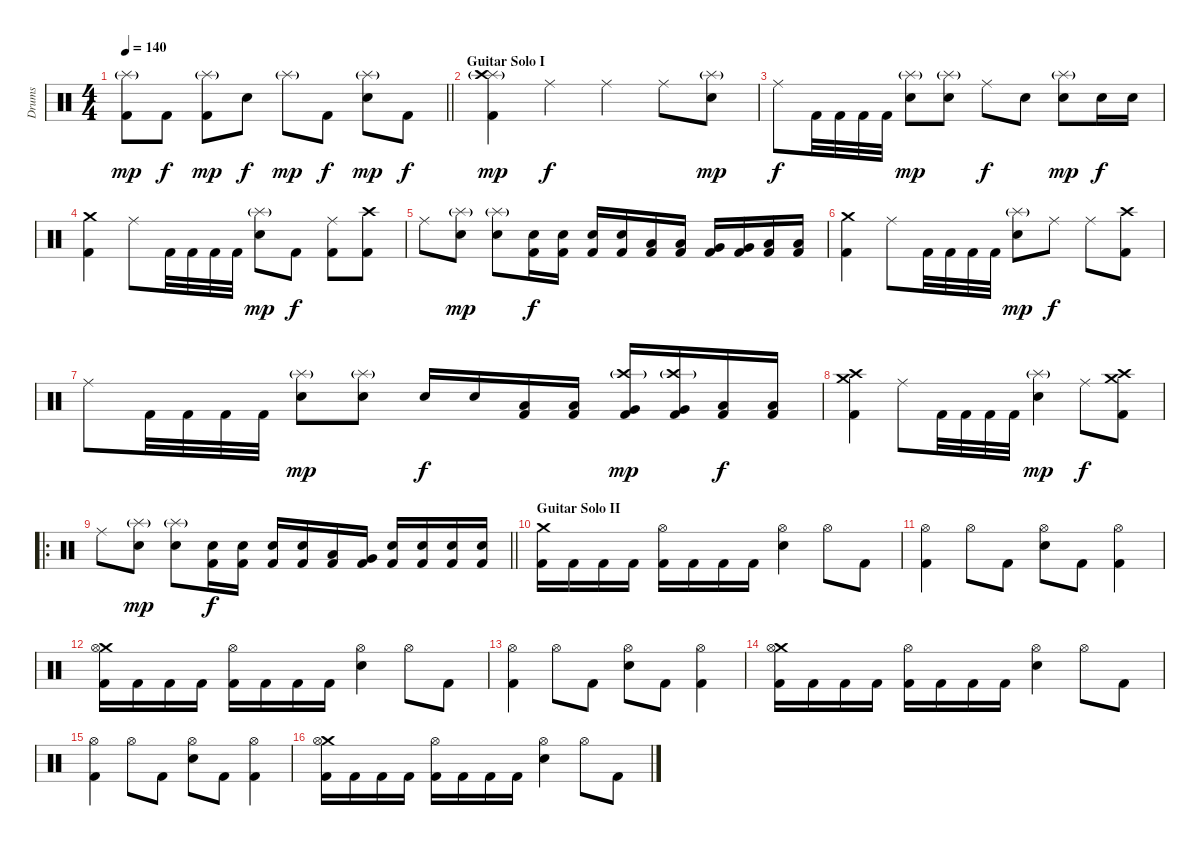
\track ("Drums" "Drums") {instrument percussion}
\staff {score}
\articulation defaults
\ts (4 4)
\tempo 140
\clef neutral
\barLineRight lightlight
\ks c
("Splash (hit)"{g} "Kick (hit) 2").8{dy mp} "Kick (hit) 2".8{dy f} ("Splash (hit)"{g} "Kick (hit) 2").8{dy mp} "Electric Snare (hit)".8{dy f} "Splash (hit)"{g}.8{dy mp} "Kick (hit) 2".8{dy f} ("Splash (hit)"{g} "Electric Snare (hit)").8{dy mp} "Kick (hit) 2".8{dy f} |
\section ("" "Guitar Solo I")
("Splash (hit)"{g} "Crash high (hit)" "Kick (hit) 2").4{dy mp} "Ride (middle)".4{dy f} "Ride (middle)".4 "Ride (middle)".8 ("Splash (hit)"{g} "Electric Snare (hit)").8{dy mp} |
"Ride (middle)".8{dy f} "Kick (hit) 2".32 "Kick (hit) 2".32 "Kick (hit) 2".32 "Kick (hit) 2".32 ("Splash (hit)"{g} "Electric Snare (hit)").8{dy mp} ("Splash (hit)"{g} "Electric Snare (hit)").8 "Ride (middle)".8{dy f} "Electric Snare (hit)".8 ("Splash (hit)"{g} "Electric Snare (hit)").8{dy mp} "Electric Snare (hit)".16{dy f} "Electric Snare (hit)".16 |
("Crash medium (hit)" "Kick (hit) 2").4 "Ride (middle)".8 "Kick (hit) 2".32 "Kick (hit) 2".32 "Kick (hit) 2".32 "Kick (hit) 2".32 ("Splash (hit)"{g} "Electric Snare (hit)").8{dy mp} "Kick (hit) 2".8{dy f} ("Ride (middle)" "Kick (hit) 2").8 ("Crash high (hit)" "Kick (hit) 2").8 |
"Ride (middle)".8 ("Splash (hit)"{g} "Electric Snare (hit)").8{dy mp} ("Splash (hit)"{g} "Electric Snare (hit)").8 ("Electric Snare (hit)" "Kick (hit) 2").16{dy f} ("Electric Snare (hit)" "Kick (hit) 2").16 ("Electric Snare (hit)" "Kick (hit) 2").16 ("Electric Snare (hit)" "Kick (hit) 2").16 ("Low Tom (hit)" "Kick (hit) 2").16 ("Low Tom (hit)" "Kick (hit) 2").16 ("Very Low Tom (hit)" "Kick (hit) 2").16 ("Very Low Tom (hit)" "Kick (hit) 2").16 ("Low Floor Tom (hit)" "Kick (hit) 2").16 ("Low Floor Tom (hit)" "Kick (hit) 2").16 |
("Crash medium (hit)" "Kick (hit) 2").4 "Ride (middle)".8 "Kick (hit) 2".32 "Kick (hit) 2".32 "Kick (hit) 2".32 "Kick (hit) 2".32 ("Splash (hit)"{g} "Electric Snare (hit)").8{dy mp} "Ride (middle)".8{dy f} "Ride (middle)".8 ("Crash high (hit)" "Kick (hit) 2").8 |
"Ride (middle)".8 "Kick (hit) 2".32 "Kick (hit) 2".32 "Kick (hit) 2".32 "Kick (hit) 2".32 ("Splash (hit)"{g} "Electric Snare (hit)").8{dy mp} ("Splash (hit)"{g} "Electric Snare (hit)").8 "Electric Snare (hit)".16{dy f} "Electric Snare (hit)".16 ("Low Tom (hit)" "Kick (hit) 2").16 ("Low Tom (hit)" "Kick (hit) 2").16 ("Crash high (hit)"{g} "Very Low Tom (hit)" "Kick (hit) 2").16{dy mp} ("Crash high (hit)"{g} "Very Low Tom (hit)" "Kick (hit) 2").16 ("Low Floor Tom (hit)" "Kick (hit) 2").16{dy f} ("Low Floor Tom (hit)" "Kick (hit) 2").16 |
("Crash medium (hit)" "Crash high (hit)" "Kick (hit) 2").4 "Ride (middle)".8 "Kick (hit) 2".32 "Kick (hit) 2".32 "Kick (hit) 2".32 "Kick (hit) 2".32 ("Splash (hit)"{g} "Electric Snare (hit)").4{dy mp} "Ride (middle)".8{dy f} ("Crash medium (hit)" "Crash high (hit)" "Kick (hit) 2").8 |
\ro
\barLineRight lightlight "Ride (middle)".8
("Splash (hit)"{g} "Electric Snare (hit)").8{dy mp} ("Splash (hit)"{g} "Electric Snare (hit)").8 ("Electric Snare (hit)" "Kick (hit) 2").16{dy f} ("Electric Snare (hit)" "Kick (hit) 2").16 ("Electric Snare (hit)" "Kick (hit) 2").16 ("Electric Snare (hit)" "Kick (hit) 2").16 ("Low Tom (hit)" "Kick (hit) 2").16 ("Very Low Tom (hit)" "Kick (hit) 2").16 ("Electric Snare (hit)" "Kick (hit) 2").16 ("Electric Snare (hit)" "Kick (hit) 2").16 ("Electric Snare (hit)" "Kick (hit) 2").16 ("Electric Snare (hit)" "Kick (hit) 2").16 |
\section ("" "Guitar Solo II")
("Crash medium (hit)" "Kick (hit) 2").16 "Kick (hit) 2".16 "Kick (hit) 2".16 "Kick (hit) 2".16 ("Hi-Hat (open)" "Kick (hit) 2").16 "Kick (hit) 2".16 "Kick (hit) 2".16 "Kick (hit) 2".16 ("Hi-Hat (open)" "Electric Snare (hit)").4 "Hi-Hat (open)".8 "Kick (hit) 2".8 |
("Hi-Hat (open)" "Kick (hit) 2").4 "Hi-Hat (open)".8 "Kick (hit) 2".8 ("Hi-Hat (open)" "Electric Snare (hit)").8 "Kick (hit) 2".8 ("Hi-Hat (open)" "Kick (hit) 2").4 |
("Crash medium (hit)" "Hi-Hat (open)" "Kick (hit) 2").16 "Kick (hit) 2".16 "Kick (hit) 2".16 "Kick (hit) 2".16 ("Hi-Hat (open)" "Kick (hit) 2").16 "Kick (hit) 2".16 "Kick (hit) 2".16 "Kick (hit) 2".16 ("Hi-Hat (open)" "Electric Snare (hit)").4 "Hi-Hat (open)".8 "Kick (hit) 2".8 |
("Hi-Hat (open)" "Kick (hit) 2").4 "Hi-Hat (open)".8 "Kick (hit) 2".8 ("Hi-Hat (open)" "Electric Snare (hit)").8 "Kick (hit) 2".8 ("Hi-Hat (open)" "Kick (hit) 2").4 |
("Crash medium (hit)" "Hi-Hat (open)" "Kick (hit) 2").16 "Kick (hit) 2".16 "Kick (hit) 2".16 "Kick (hit) 2".16 ("Hi-Hat (open)" "Kick (hit) 2").16 "Kick (hit) 2".16 "Kick (hit) 2".16 "Kick (hit) 2".16 ("Hi-Hat (open)" "Electric Snare (hit)").4 "Hi-Hat (open)".8 "Kick (hit) 2".8 |
("Hi-Hat (open)" "Kick (hit) 2").4 "Hi-Hat (open)".8 "Kick (hit) 2".8 ("Hi-Hat (open)" "Electric Snare (hit)").8 "Kick (hit) 2".8 ("Hi-Hat (open)" "Kick (hit) 2").4 |
("Crash medium (hit)" "Hi-Hat (open)" "Kick (hit) 2").16 "Kick (hit) 2".16 "Kick (hit) 2".16 "Kick (hit) 2".16 ("Hi-Hat (open)" "Kick (hit) 2").16 "Kick (hit) 2".16 "Kick (hit) 2".16 "Kick (hit) 2".16 ("Hi-Hat (open)" "Electric Snare (hit)").4 "Hi-Hat (open)".8 "Kick (hit) 2".8
